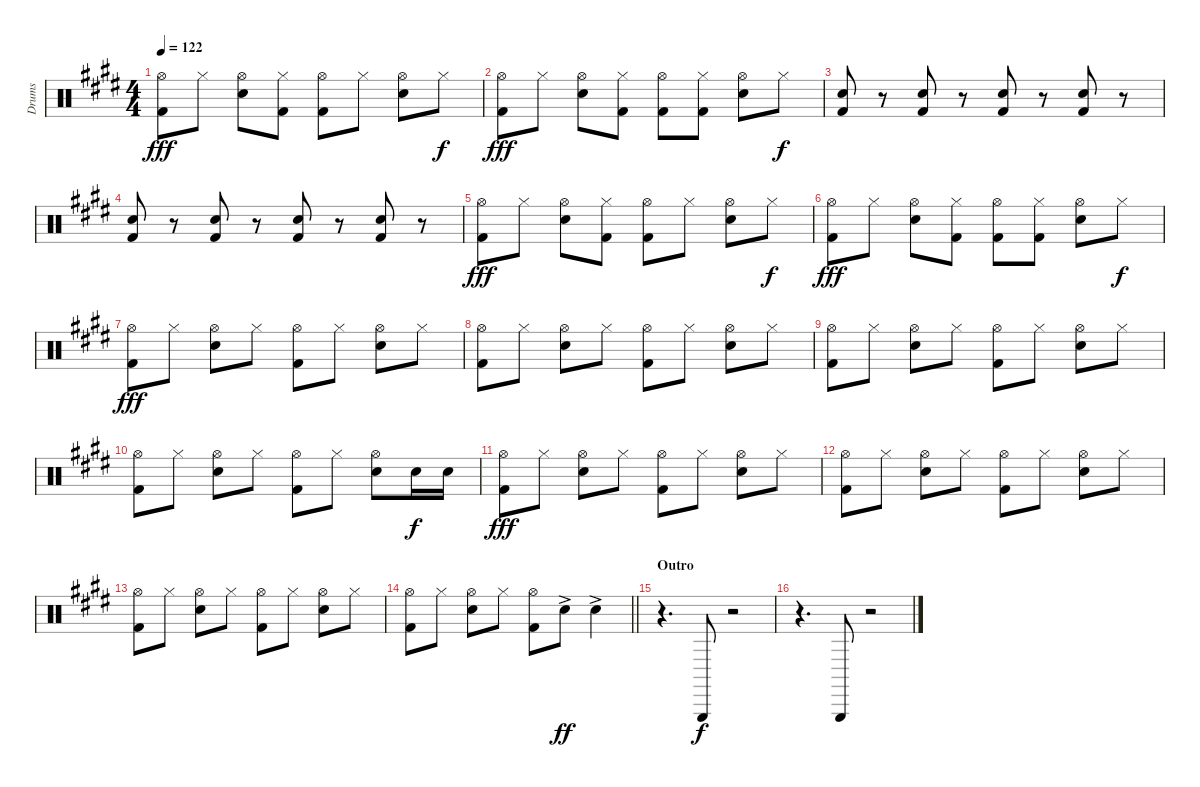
\track ("Drums" "Drums") {instrument percussion}
\staff {score}
\articulation defaults
\ts (4 4)
\tempo 122
\clef neutral
\ks e
("Hi-Hat (open)" "Kick (hit) 2").8{dy fff} "Hi-Hat (closed)".8 ("Hi-Hat (open)" "Electric Snare (hit)").8 ("Hi-Hat (closed)" "Kick (hit) 2").8 ("Hi-Hat (open)" "Kick (hit) 2").8 "Hi-Hat (closed)".8 ("Hi-Hat (open)" "Electric Snare (hit)").8 "Hi-Hat (closed)".8{dy f} |
("Hi-Hat (open)" "Kick (hit) 2").8{dy fff} "Hi-Hat (closed)".8 ("Hi-Hat (open)" "Electric Snare (hit)").8 ("Hi-Hat (closed)" "Kick (hit) 2").8 ("Hi-Hat (open)" "Kick (hit) 2").8 ("Hi-Hat (closed)" "Kick (hit) 2").8 ("Hi-Hat (open)" "Electric Snare (hit)").8 "Hi-Hat (closed)".8{dy f} |
("Electric Snare (hit)" "Kick (hit) 2").8 r.8 ("Electric Snare (hit)" "Kick (hit) 2").8 r.8 ("Electric Snare (hit)" "Kick (hit) 2").8 r.8 ("Electric Snare (hit)" "Kick (hit) 2").8 r.8 |
("Electric Snare (hit)" "Kick (hit) 2").8 r.8 ("Electric Snare (hit)" "Kick (hit) 2").8 r.8 ("Electric Snare (hit)" "Kick (hit) 2").8 r.8 ("Electric Snare (hit)" "Kick (hit) 2").8 r.8 |
("Hi-Hat (open)" "Kick (hit) 2").8{dy fff} "Hi-Hat (closed)".8 ("Hi-Hat (open)" "Electric Snare (hit)").8 ("Hi-Hat (closed)" "Kick (hit) 2").8 ("Hi-Hat (open)" "Kick (hit) 2").8 "Hi-Hat (closed)".8 ("Hi-Hat (open)" "Electric Snare (hit)").8 "Hi-Hat (closed)".8{dy f} |
("Hi-Hat (open)" "Kick (hit) 2").8{dy fff} "Hi-Hat (closed)".8 ("Hi-Hat (open)" "Electric Snare (hit)").8 ("Hi-Hat (closed)" "Kick (hit) 2").8 ("Hi-Hat (open)" "Kick (hit) 2").8 ("Hi-Hat (closed)" "Kick (hit) 2").8 ("Hi-Hat (open)" "Electric Snare (hit)").8 "Hi-Hat (closed)".8{dy f} |
("Hi-Hat (open)" "Kick (hit) 2").8{dy fff} "Hi-Hat (closed)".8 ("Hi-Hat (open)" "Electric Snare (hit)").8 "Hi-Hat (closed)".8 ("Hi-Hat (open)" "Kick (hit) 2").8 "Hi-Hat (closed)".8 ("Hi-Hat (open)" "Electric Snare (hit)").8 "Hi-Hat (closed)".8 |
("Hi-Hat (open)" "Kick (hit) 2").8 "Hi-Hat (closed)".8 ("Hi-Hat (open)" "Electric Snare (hit)").8 "Hi-Hat (closed)".8 ("Hi-Hat (open)" "Kick (hit) 2").8 "Hi-Hat (closed)".8 ("Hi-Hat (open)" "Electric Snare (hit)").8 "Hi-Hat (closed)".8 |
("Hi-Hat (open)" "Kick (hit) 2").8 "Hi-Hat (closed)".8 ("Hi-Hat (open)" "Electric Snare (hit)").8 "Hi-Hat (closed)".8 ("Hi-Hat (open)" "Kick (hit) 2").8 "Hi-Hat (closed)".8 ("Hi-Hat (open)" "Electric Snare (hit)").8 "Hi-Hat (closed)".8 |
("Hi-Hat (open)" "Kick (hit) 2").8 "Hi-Hat (closed)".8 ("Hi-Hat (open)" "Electric Snare (hit)").8 "Hi-Hat (closed)".8 ("Hi-Hat (open)" "Kick (hit) 2").8 "Hi-Hat (closed)".8 ("Hi-Hat (open)" "Electric Snare (hit)").8 "Electric Snare (hit)".16{dy f} "Electric Snare (hit)".16 |
("Hi-Hat (open)" "Kick (hit) 2").8{dy fff} "Hi-Hat (closed)".8 ("Hi-Hat (open)" "Electric Snare (hit)").8 "Hi-Hat (closed)".8 ("Hi-Hat (open)" "Kick (hit) 2").8 "Hi-Hat (closed)".8 ("Hi-Hat (open)" "Electric Snare (hit)").8 "Hi-Hat (closed)".8 |
("Hi-Hat (open)" "Kick (hit) 2").8 "Hi-Hat (closed)".8 ("Hi-Hat (open)" "Electric Snare (hit)").8 "Hi-Hat (closed)".8 ("Hi-Hat (open)" "Kick (hit) 2").8 "Hi-Hat (closed)".8 ("Hi-Hat (open)" "Electric Snare (hit)").8 "Hi-Hat (closed)".8 |
("Hi-Hat (open)" "Kick (hit) 2").8 "Hi-Hat (closed)".8 ("Hi-Hat (open)" "Electric Snare (hit)").8 "Hi-Hat (closed)".8 ("Hi-Hat (open)" "Kick (hit) 2").8 "Hi-Hat (closed)".8 ("Hi-Hat (open)" "Electric Snare (hit)").8 "Hi-Hat (closed)".8 |
\barLineRight lightlight
("Hi-Hat (open)" "Kick (hit) 2").8 "Hi-Hat (closed)".8 ("Hi-Hat (open)" "Electric Snare (hit)").8 "Hi-Hat (closed)".8 ("Hi-Hat (open)" "Kick (hit) 2").8 "Electric Snare (hit)"{ac}.8{dy ff} "Electric Snare (hit)"{ac}.4 |
\section ("" "Outro")
r.4{d} "Triangle (hit)".8{dy f} r.2 |
r.4{d} "Triangle (hit)".8 r.2
